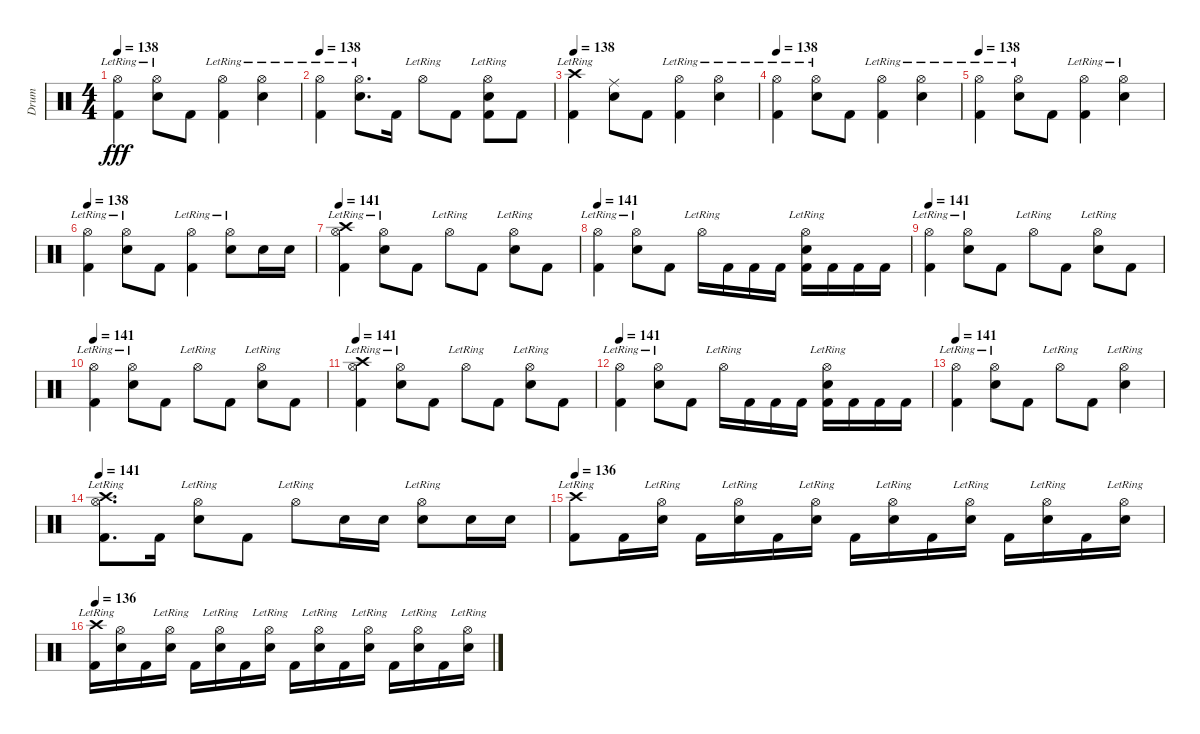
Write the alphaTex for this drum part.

\track ("Drum" "Drum") {instrument percussion}
\staff {score}
\articulation defaults
\ts (4 4)
\tempo 138
\clef neutral
\ks c
("Hi-Hat (open)"{lr} "Kick (hit) 2").4{dy fff} ("Hi-Hat (open)"{lr} "Electric Snare (hit)").8 "Kick (hit) 2".8 ("Hi-Hat (open)"{lr} "Kick (hit) 2").4 ("Hi-Hat (open)"{lr} "Electric Snare (hit)").4 |
\tempo 138
("Hi-Hat (open)"{lr} "Kick (hit) 2").4 ("Hi-Hat (open)"{lr} "Electric Snare (hit)").8{d} "Kick (hit) 2".16 "Hi-Hat (open)"{lr}.8 "Kick (hit) 2".8 ("Hi-Hat (open)"{lr} "Electric Snare (hit)" "Kick (hit) 2").8 "Kick (hit) 2".8 |
\tempo 138
("Crash high (hit)"{lr} "Kick (hit) 2").4 ("Ride (middle)" "Electric Snare (hit)").8 "Kick (hit) 2".8 ("Hi-Hat (open)"{lr} "Kick (hit) 2").4 ("Hi-Hat (open)"{lr} "Electric Snare (hit)").4 |
\tempo 138
("Hi-Hat (open)"{lr} "Kick (hit) 2").4 ("Hi-Hat (open)"{lr} "Electric Snare (hit)").8 "Kick (hit) 2".8 ("Hi-Hat (open)"{lr} "Kick (hit) 2").4 ("Hi-Hat (open)"{lr} "Electric Snare (hit)").4 |
\tempo 138
("Hi-Hat (open)"{lr} "Kick (hit) 2").4 ("Hi-Hat (open)"{lr} "Electric Snare (hit)").8 "Kick (hit) 2".8 ("Hi-Hat (open)"{lr} "Kick (hit) 2").4 ("Hi-Hat (open)"{lr} "Electric Snare (hit)").4 |
\tempo 138
("Hi-Hat (open)"{lr} "Kick (hit) 2").4 ("Hi-Hat (open)"{lr} "Electric Snare (hit)").8 "Kick (hit) 2".8 ("Hi-Hat (open)"{lr} "Kick (hit) 2").4 ("Hi-Hat (open)"{lr} "Electric Snare (hit)").8 "Electric Snare (hit)".16 "Electric Snare (hit)".16 |
\tempo 141
("Crash high (hit)"{lr} "Hi-Hat (open)"{lr} "Kick (hit) 2").4 ("Hi-Hat (open)"{lr} "Electric Snare (hit)").8 "Kick (hit) 2".8 "Hi-Hat (open)"{lr}.8 "Kick (hit) 2".8 ("Hi-Hat (open)"{lr} "Electric Snare (hit)").8 "Kick (hit) 2".8 |
\tempo 141
("Hi-Hat (open)"{lr} "Kick (hit) 2").4 ("Hi-Hat (open)"{lr} "Electric Snare (hit)").8 "Kick (hit) 2".8 "Hi-Hat (open)"{lr}.16 "Kick (hit) 2".16 "Kick (hit) 2".16 "Kick (hit) 2".16 ("Hi-Hat (open)"{lr} "Electric Snare (hit)" "Kick (hit) 2").16 "Kick (hit) 2".16 "Kick (hit) 2".16 "Kick (hit) 2".16 |
\tempo 141
("Hi-Hat (open)"{lr} "Kick (hit) 2").4 ("Hi-Hat (open)"{lr} "Electric Snare (hit)").8 "Kick (hit) 2".8 "Hi-Hat (open)"{lr}.8 "Kick (hit) 2".8 ("Hi-Hat (open)"{lr} "Electric Snare (hit)").8 "Kick (hit) 2".8 |
\tempo 141
("Hi-Hat (open)"{lr} "Kick (hit) 2").4 ("Hi-Hat (open)"{lr} "Electric Snare (hit)").8 "Kick (hit) 2".8 "Hi-Hat (open)"{lr}.8 "Kick (hit) 2".8 ("Hi-Hat (open)"{lr} "Electric Snare (hit)").8 "Kick (hit) 2".8 |
\tempo 141
("Crash high (hit)"{lr} "Hi-Hat (open)"{lr} "Kick (hit) 2").4 ("Hi-Hat (open)"{lr} "Electric Snare (hit)").8 "Kick (hit) 2".8 "Hi-Hat (open)"{lr}.8 "Kick (hit) 2".8 ("Hi-Hat (open)"{lr} "Electric Snare (hit)").8 "Kick (hit) 2".8 |
\tempo 141
("Hi-Hat (open)"{lr} "Kick (hit) 2").4 ("Hi-Hat (open)"{lr} "Electric Snare (hit)").8 "Kick (hit) 2".8 "Hi-Hat (open)"{lr}.16 "Kick (hit) 2".16 "Kick (hit) 2".16 "Kick (hit) 2".16 ("Hi-Hat (open)"{lr} "Electric Snare (hit)" "Kick (hit) 2").16 "Kick (hit) 2".16 "Kick (hit) 2".16 "Kick (hit) 2".16 |
\tempo 141
("Hi-Hat (open)"{lr} "Kick (hit) 2").4 ("Hi-Hat (open)"{lr} "Electric Snare (hit)").8 "Kick (hit) 2".8 "Hi-Hat (open)"{lr}.8 "Kick (hit) 2".8 ("Hi-Hat (open)"{lr} "Electric Snare (hit)").4 |
\tempo 141
("Crash high (hit)"{lr} "Hi-Hat (open)"{lr} "Kick (hit) 2").8{d} "Kick (hit) 2".16 ("Hi-Hat (open)"{lr} "Electric Snare (hit)").8 "Kick (hit) 2".8 "Hi-Hat (open)"{lr}.8 "Electric Snare (hit)".16 "Electric Snare (hit)".16 ("Hi-Hat (open)"{lr} "Electric Snare (hit)").8 "Electric Snare (hit)".16 "Electric Snare (hit)".16 |
\tempo 136
("Crash high (hit)"{lr} "Kick (hit) 2").8 "Kick (hit) 2".16 ("Hi-Hat (open)"{lr} "Electric Snare (hit)").16 "Kick (hit) 2".16 ("Hi-Hat (open)"{lr} "Electric Snare (hit)").16 "Kick (hit) 2".16 ("Hi-Hat (open)"{lr} "Electric Snare (hit)").16 "Kick (hit) 2".16 ("Hi-Hat (open)"{lr} "Electric Snare (hit)").16 "Kick (hit) 2".16 ("Hi-Hat (open)"{lr} "Electric Snare (hit)").16 "Kick (hit) 2".16 ("Hi-Hat (open)"{lr} "Electric Snare (hit)").16 "Kick (hit) 2".16 ("Hi-Hat (open)"{lr} "Electric Snare (hit)").16 |
\tempo 136
("Crash high (hit)"{lr} "Kick (hit) 2").16 ("Hi-Hat (open)"{lr} "Electric Snare (hit)").16 "Kick (hit) 2".16 ("Hi-Hat (open)"{lr} "Electric Snare (hit)").16 "Kick (hit) 2".16 ("Hi-Hat (open)"{lr} "Electric Snare (hit)").16 "Kick (hit) 2".16 ("Hi-Hat (open)"{lr} "Electric Snare (hit)").16 "Kick (hit) 2".16 ("Hi-Hat (open)"{lr} "Electric Snare (hit)").16 "Kick (hit) 2".16 ("Hi-Hat (open)"{lr} "Electric Snare (hit)").16 "Kick (hit) 2".16 ("Hi-Hat (open)"{lr} "Electric Snare (hit)").16 "Kick (hit) 2".16 ("Hi-Hat (open)"{lr} "Electric Snare (hit)").16
